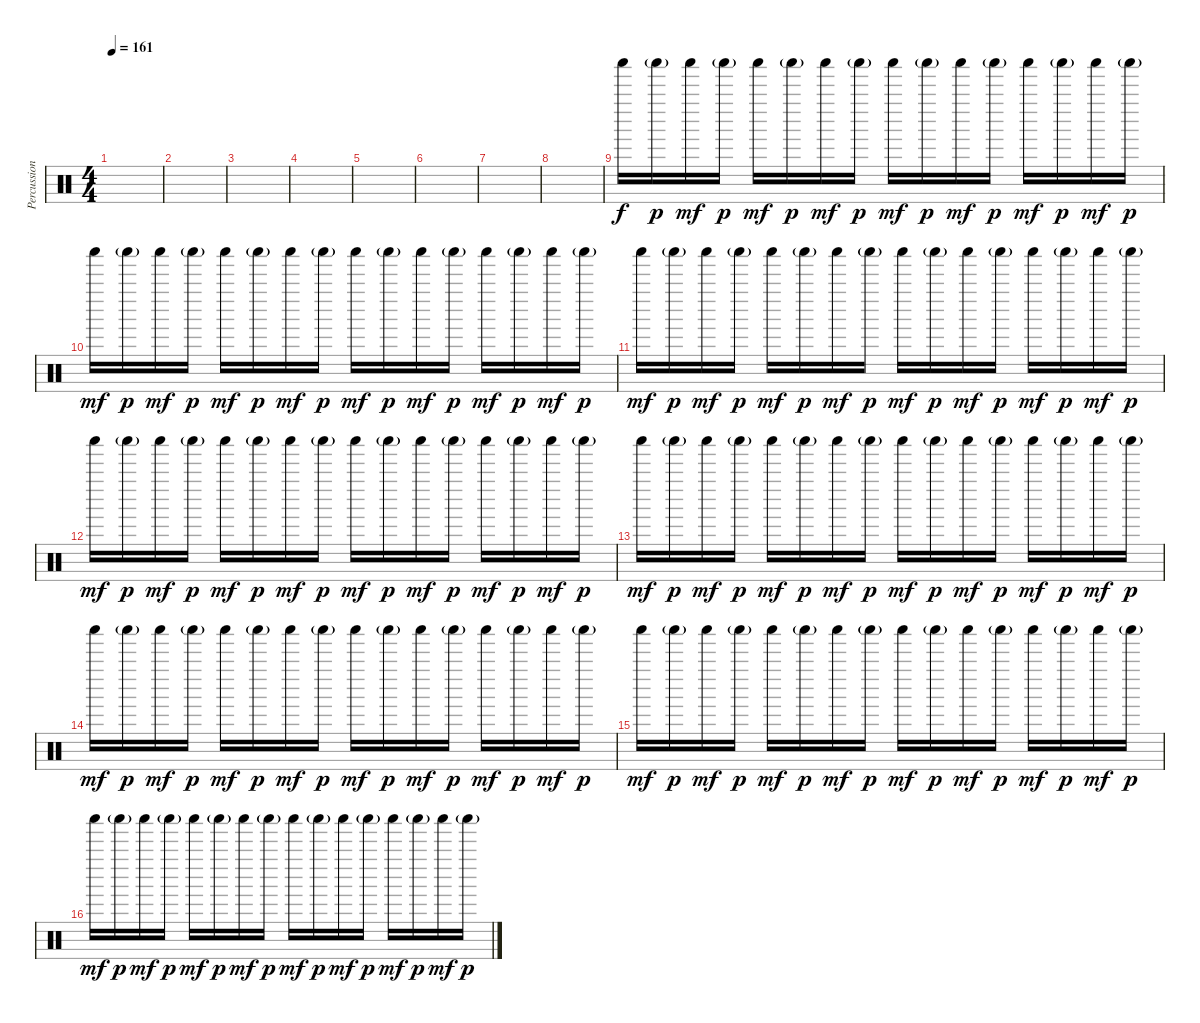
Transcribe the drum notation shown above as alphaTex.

\track ("Percussion" "Percussion") {instrument percussion}
\staff {score}
\articulation defaults
\ts (4 4)
\tempo 161
\tempo 80
\tempo 161
\clef neutral
\ks c
|
|
|
|
|
|
|
|
"Shaker (hit)".16 "Shaker (hit)"{g}.16{dy p} "Shaker (hit)".16{dy mf} "Shaker (hit)"{g}.16{dy p} "Shaker (hit)".16{dy mf} "Shaker (hit)"{g}.16{dy p} "Shaker (hit)".16{dy mf} "Shaker (hit)"{g}.16{dy p} "Shaker (hit)".16{dy mf} "Shaker (hit)"{g}.16{dy p} "Shaker (hit)".16{dy mf} "Shaker (hit)"{g}.16{dy p} "Shaker (hit)".16{dy mf} "Shaker (hit)"{g}.16{dy p} "Shaker (hit)".16{dy mf} "Shaker (hit)"{g}.16{dy p} |
"Shaker (hit)".16{dy mf} "Shaker (hit)"{g}.16{dy p} "Shaker (hit)".16{dy mf} "Shaker (hit)"{g}.16{dy p} "Shaker (hit)".16{dy mf} "Shaker (hit)"{g}.16{dy p} "Shaker (hit)".16{dy mf} "Shaker (hit)"{g}.16{dy p} "Shaker (hit)".16{dy mf} "Shaker (hit)"{g}.16{dy p} "Shaker (hit)".16{dy mf} "Shaker (hit)"{g}.16{dy p} "Shaker (hit)".16{dy mf} "Shaker (hit)"{g}.16{dy p} "Shaker (hit)".16{dy mf} "Shaker (hit)"{g}.16{dy p} |
"Shaker (hit)".16{dy mf} "Shaker (hit)"{g}.16{dy p} "Shaker (hit)".16{dy mf} "Shaker (hit)"{g}.16{dy p} "Shaker (hit)".16{dy mf} "Shaker (hit)"{g}.16{dy p} "Shaker (hit)".16{dy mf} "Shaker (hit)"{g}.16{dy p} "Shaker (hit)".16{dy mf} "Shaker (hit)"{g}.16{dy p} "Shaker (hit)".16{dy mf} "Shaker (hit)"{g}.16{dy p} "Shaker (hit)".16{dy mf} "Shaker (hit)"{g}.16{dy p} "Shaker (hit)".16{dy mf} "Shaker (hit)"{g}.16{dy p} |
"Shaker (hit)".16{dy mf} "Shaker (hit)"{g}.16{dy p} "Shaker (hit)".16{dy mf} "Shaker (hit)"{g}.16{dy p} "Shaker (hit)".16{dy mf} "Shaker (hit)"{g}.16{dy p} "Shaker (hit)".16{dy mf} "Shaker (hit)"{g}.16{dy p} "Shaker (hit)".16{dy mf} "Shaker (hit)"{g}.16{dy p} "Shaker (hit)".16{dy mf} "Shaker (hit)"{g}.16{dy p} "Shaker (hit)".16{dy mf} "Shaker (hit)"{g}.16{dy p} "Shaker (hit)".16{dy mf} "Shaker (hit)"{g}.16{dy p} |
"Shaker (hit)".16{dy mf} "Shaker (hit)"{g}.16{dy p} "Shaker (hit)".16{dy mf} "Shaker (hit)"{g}.16{dy p} "Shaker (hit)".16{dy mf} "Shaker (hit)"{g}.16{dy p} "Shaker (hit)".16{dy mf} "Shaker (hit)"{g}.16{dy p} "Shaker (hit)".16{dy mf} "Shaker (hit)"{g}.16{dy p} "Shaker (hit)".16{dy mf} "Shaker (hit)"{g}.16{dy p} "Shaker (hit)".16{dy mf} "Shaker (hit)"{g}.16{dy p} "Shaker (hit)".16{dy mf} "Shaker (hit)"{g}.16{dy p} |
"Shaker (hit)".16{dy mf} "Shaker (hit)"{g}.16{dy p} "Shaker (hit)".16{dy mf} "Shaker (hit)"{g}.16{dy p} "Shaker (hit)".16{dy mf} "Shaker (hit)"{g}.16{dy p} "Shaker (hit)".16{dy mf} "Shaker (hit)"{g}.16{dy p} "Shaker (hit)".16{dy mf} "Shaker (hit)"{g}.16{dy p} "Shaker (hit)".16{dy mf} "Shaker (hit)"{g}.16{dy p} "Shaker (hit)".16{dy mf} "Shaker (hit)"{g}.16{dy p} "Shaker (hit)".16{dy mf} "Shaker (hit)"{g}.16{dy p} |
"Shaker (hit)".16{dy mf} "Shaker (hit)"{g}.16{dy p} "Shaker (hit)".16{dy mf} "Shaker (hit)"{g}.16{dy p} "Shaker (hit)".16{dy mf} "Shaker (hit)"{g}.16{dy p} "Shaker (hit)".16{dy mf} "Shaker (hit)"{g}.16{dy p} "Shaker (hit)".16{dy mf} "Shaker (hit)"{g}.16{dy p} "Shaker (hit)".16{dy mf} "Shaker (hit)"{g}.16{dy p} "Shaker (hit)".16{dy mf} "Shaker (hit)"{g}.16{dy p} "Shaker (hit)".16{dy mf} "Shaker (hit)"{g}.16{dy p} |
"Shaker (hit)".16{dy mf} "Shaker (hit)"{g}.16{dy p} "Shaker (hit)".16{dy mf} "Shaker (hit)"{g}.16{dy p} "Shaker (hit)".16{dy mf} "Shaker (hit)"{g}.16{dy p} "Shaker (hit)".16{dy mf} "Shaker (hit)"{g}.16{dy p} "Shaker (hit)".16{dy mf} "Shaker (hit)"{g}.16{dy p} "Shaker (hit)".16{dy mf} "Shaker (hit)"{g}.16{dy p} "Shaker (hit)".16{dy mf} "Shaker (hit)"{g}.16{dy p} "Shaker (hit)".16{dy mf} "Shaker (hit)"{g}.16{dy p}
